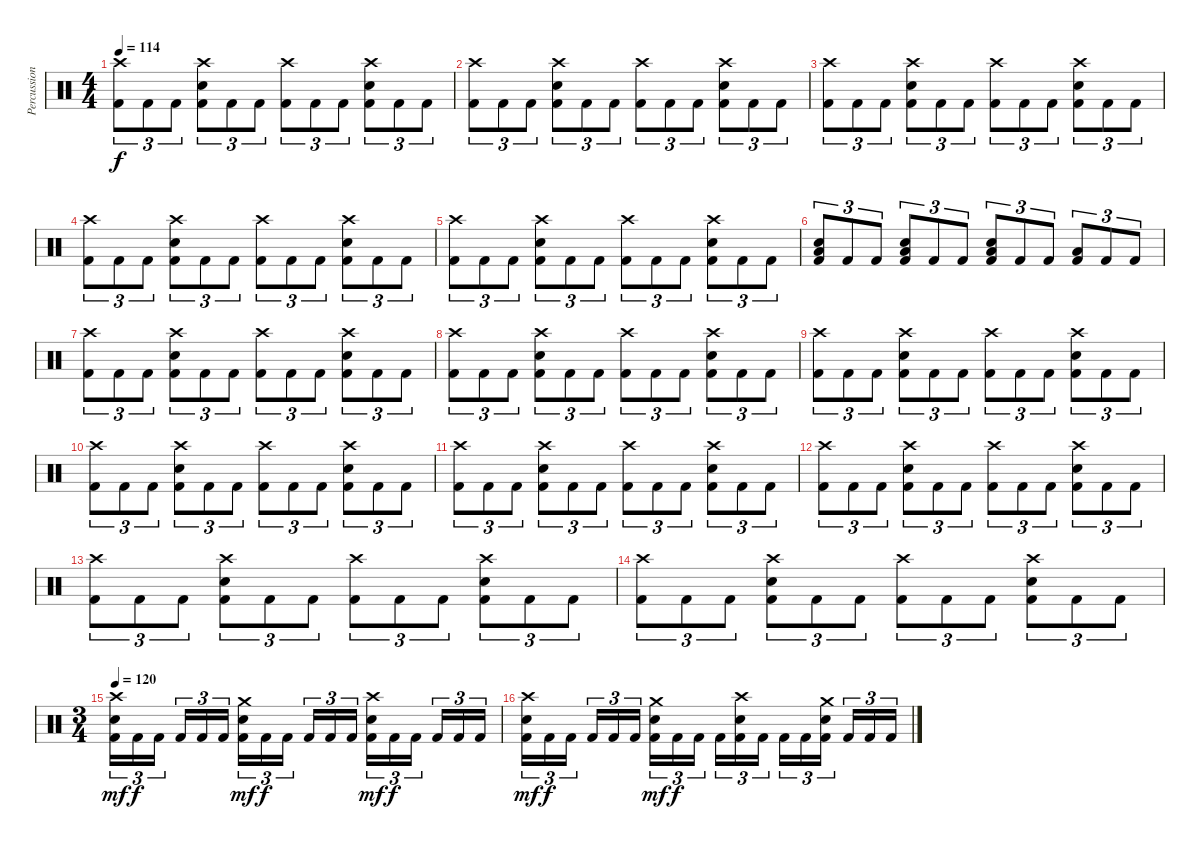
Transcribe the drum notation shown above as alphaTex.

\track ("Percussion" "Percussion") {instrument percussion}
\staff {score}
\articulation defaults
\ts (4 4)
\tempo 114
\clef neutral
\ks c
("Crash high (hit)" "Kick (hit) 2").8{tu (3 2) dy f} "Kick (hit) 2".8{tu (3 2)} "Kick (hit) 2".8{tu (3 2)} ("Crash high (hit)" "Electric Snare (hit)" "Kick (hit) 2").8{tu (3 2)} "Kick (hit) 2".8{tu (3 2)} "Kick (hit) 2".8{tu (3 2)} ("Crash high (hit)" "Kick (hit) 2").8{tu (3 2)} "Kick (hit) 2".8{tu (3 2)} "Kick (hit) 2".8{tu (3 2)} ("Crash high (hit)" "Electric Snare (hit)" "Kick (hit) 2").8{tu (3 2)} "Kick (hit) 2".8{tu (3 2)} "Kick (hit) 2".8{tu (3 2)} |
("Crash high (hit)" "Kick (hit) 2").8{tu (3 2)} "Kick (hit) 2".8{tu (3 2)} "Kick (hit) 2".8{tu (3 2)} ("Crash high (hit)" "Electric Snare (hit)" "Kick (hit) 2").8{tu (3 2)} "Kick (hit) 2".8{tu (3 2)} "Kick (hit) 2".8{tu (3 2)} ("Crash high (hit)" "Kick (hit) 2").8{tu (3 2)} "Kick (hit) 2".8{tu (3 2)} "Kick (hit) 2".8{tu (3 2)} ("Crash high (hit)" "Electric Snare (hit)" "Kick (hit) 2").8{tu (3 2)} "Kick (hit) 2".8{tu (3 2)} "Kick (hit) 2".8{tu (3 2)} |
("Crash high (hit)" "Kick (hit) 2").8{tu (3 2)} "Kick (hit) 2".8{tu (3 2)} "Kick (hit) 2".8{tu (3 2)} ("Crash high (hit)" "Electric Snare (hit)" "Kick (hit) 2").8{tu (3 2)} "Kick (hit) 2".8{tu (3 2)} "Kick (hit) 2".8{tu (3 2)} ("Crash high (hit)" "Kick (hit) 2").8{tu (3 2)} "Kick (hit) 2".8{tu (3 2)} "Kick (hit) 2".8{tu (3 2)} ("Crash high (hit)" "Electric Snare (hit)" "Kick (hit) 2").8{tu (3 2)} "Kick (hit) 2".8{tu (3 2)} "Kick (hit) 2".8{tu (3 2)} |
("Crash high (hit)" "Kick (hit) 2").8{tu (3 2)} "Kick (hit) 2".8{tu (3 2)} "Kick (hit) 2".8{tu (3 2)} ("Crash high (hit)" "Electric Snare (hit)" "Kick (hit) 2").8{tu (3 2)} "Kick (hit) 2".8{tu (3 2)} "Kick (hit) 2".8{tu (3 2)} ("Crash high (hit)" "Kick (hit) 2").8{tu (3 2)} "Kick (hit) 2".8{tu (3 2)} "Kick (hit) 2".8{tu (3 2)} ("Crash high (hit)" "Electric Snare (hit)" "Kick (hit) 2").8{tu (3 2)} "Kick (hit) 2".8{tu (3 2)} "Kick (hit) 2".8{tu (3 2)} |
("Crash high (hit)" "Kick (hit) 2").8{tu (3 2)} "Kick (hit) 2".8{tu (3 2)} "Kick (hit) 2".8{tu (3 2)} ("Crash high (hit)" "Electric Snare (hit)" "Kick (hit) 2").8{tu (3 2)} "Kick (hit) 2".8{tu (3 2)} "Kick (hit) 2".8{tu (3 2)} ("Crash high (hit)" "Kick (hit) 2").8{tu (3 2)} "Kick (hit) 2".8{tu (3 2)} "Kick (hit) 2".8{tu (3 2)} ("Crash high (hit)" "Electric Snare (hit)" "Kick (hit) 2").8{tu (3 2)} "Kick (hit) 2".8{tu (3 2)} "Kick (hit) 2".8{tu (3 2)} |
("Low Floor Tom (hit)" "Electric Snare (hit)" "Kick (hit) 2").8{tu (3 2)} "Kick (hit) 2".8{tu (3 2)} "Kick (hit) 2".8{tu (3 2)} ("Low Floor Tom (hit)" "Electric Snare (hit)" "Kick (hit) 2").8{tu (3 2)} "Kick (hit) 2".8{tu (3 2)} "Kick (hit) 2".8{tu (3 2)} ("Low Floor Tom (hit)" "Electric Snare (hit)" "Kick (hit) 2").8{tu (3 2)} "Kick (hit) 2".8{tu (3 2)} "Kick (hit) 2".8{tu (3 2)} ("Low Floor Tom (hit)" "Kick (hit) 2").8{tu (3 2)} "Kick (hit) 2".8{tu (3 2)} "Kick (hit) 2".8{tu (3 2)} |
("Crash high (hit)" "Kick (hit) 2").8{tu (3 2)} "Kick (hit) 2".8{tu (3 2)} "Kick (hit) 2".8{tu (3 2)} ("Crash high (hit)" "Electric Snare (hit)" "Kick (hit) 2").8{tu (3 2)} "Kick (hit) 2".8{tu (3 2)} "Kick (hit) 2".8{tu (3 2)} ("Crash high (hit)" "Kick (hit) 2").8{tu (3 2)} "Kick (hit) 2".8{tu (3 2)} "Kick (hit) 2".8{tu (3 2)} ("Crash high (hit)" "Electric Snare (hit)" "Kick (hit) 2").8{tu (3 2)} "Kick (hit) 2".8{tu (3 2)} "Kick (hit) 2".8{tu (3 2)} |
("Crash high (hit)" "Kick (hit) 2").8{tu (3 2)} "Kick (hit) 2".8{tu (3 2)} "Kick (hit) 2".8{tu (3 2)} ("Crash high (hit)" "Electric Snare (hit)" "Kick (hit) 2").8{tu (3 2)} "Kick (hit) 2".8{tu (3 2)} "Kick (hit) 2".8{tu (3 2)} ("Crash high (hit)" "Kick (hit) 2").8{tu (3 2)} "Kick (hit) 2".8{tu (3 2)} "Kick (hit) 2".8{tu (3 2)} ("Crash high (hit)" "Electric Snare (hit)" "Kick (hit) 2").8{tu (3 2)} "Kick (hit) 2".8{tu (3 2)} "Kick (hit) 2".8{tu (3 2)} |
("Crash high (hit)" "Kick (hit) 2").8{tu (3 2)} "Kick (hit) 2".8{tu (3 2)} "Kick (hit) 2".8{tu (3 2)} ("Crash high (hit)" "Electric Snare (hit)" "Kick (hit) 2").8{tu (3 2)} "Kick (hit) 2".8{tu (3 2)} "Kick (hit) 2".8{tu (3 2)} ("Crash high (hit)" "Kick (hit) 2").8{tu (3 2)} "Kick (hit) 2".8{tu (3 2)} "Kick (hit) 2".8{tu (3 2)} ("Crash high (hit)" "Electric Snare (hit)" "Kick (hit) 2").8{tu (3 2)} "Kick (hit) 2".8{tu (3 2)} "Kick (hit) 2".8{tu (3 2)} |
("Crash high (hit)" "Kick (hit) 2").8{tu (3 2)} "Kick (hit) 2".8{tu (3 2)} "Kick (hit) 2".8{tu (3 2)} ("Crash high (hit)" "Electric Snare (hit)" "Kick (hit) 2").8{tu (3 2)} "Kick (hit) 2".8{tu (3 2)} "Kick (hit) 2".8{tu (3 2)} ("Crash high (hit)" "Kick (hit) 2").8{tu (3 2)} "Kick (hit) 2".8{tu (3 2)} "Kick (hit) 2".8{tu (3 2)} ("Crash high (hit)" "Electric Snare (hit)" "Kick (hit) 2").8{tu (3 2)} "Kick (hit) 2".8{tu (3 2)} "Kick (hit) 2".8{tu (3 2)} |
("Crash high (hit)" "Kick (hit) 2").8{tu (3 2)} "Kick (hit) 2".8{tu (3 2)} "Kick (hit) 2".8{tu (3 2)} ("Crash high (hit)" "Electric Snare (hit)" "Kick (hit) 2").8{tu (3 2)} "Kick (hit) 2".8{tu (3 2)} "Kick (hit) 2".8{tu (3 2)} ("Crash high (hit)" "Kick (hit) 2").8{tu (3 2)} "Kick (hit) 2".8{tu (3 2)} "Kick (hit) 2".8{tu (3 2)} ("Crash high (hit)" "Electric Snare (hit)" "Kick (hit) 2").8{tu (3 2)} "Kick (hit) 2".8{tu (3 2)} "Kick (hit) 2".8{tu (3 2)} |
("Crash high (hit)" "Kick (hit) 2").8{tu (3 2)} "Kick (hit) 2".8{tu (3 2)} "Kick (hit) 2".8{tu (3 2)} ("Crash high (hit)" "Electric Snare (hit)" "Kick (hit) 2").8{tu (3 2)} "Kick (hit) 2".8{tu (3 2)} "Kick (hit) 2".8{tu (3 2)} ("Crash high (hit)" "Kick (hit) 2").8{tu (3 2)} "Kick (hit) 2".8{tu (3 2)} "Kick (hit) 2".8{tu (3 2)} ("Crash high (hit)" "Electric Snare (hit)" "Kick (hit) 2").8{tu (3 2)} "Kick (hit) 2".8{tu (3 2)} "Kick (hit) 2".8{tu (3 2)} |
("Crash high (hit)" "Kick (hit) 2").8{tu (3 2)} "Kick (hit) 2".8{tu (3 2)} "Kick (hit) 2".8{tu (3 2)} ("Crash high (hit)" "Electric Snare (hit)" "Kick (hit) 2").8{tu (3 2)} "Kick (hit) 2".8{tu (3 2)} "Kick (hit) 2".8{tu (3 2)} ("Crash high (hit)" "Kick (hit) 2").8{tu (3 2)} "Kick (hit) 2".8{tu (3 2)} "Kick (hit) 2".8{tu (3 2)} ("Crash high (hit)" "Electric Snare (hit)" "Kick (hit) 2").8{tu (3 2)} "Kick (hit) 2".8{tu (3 2)} "Kick (hit) 2".8{tu (3 2)} |
("Crash high (hit)" "Kick (hit) 2").8{tu (3 2)} "Kick (hit) 2".8{tu (3 2)} "Kick (hit) 2".8{tu (3 2)} ("Crash high (hit)" "Electric Snare (hit)" "Kick (hit) 2").8{tu (3 2)} "Kick (hit) 2".8{tu (3 2)} "Kick (hit) 2".8{tu (3 2)} ("Crash high (hit)" "Kick (hit) 2").8{tu (3 2)} "Kick (hit) 2".8{tu (3 2)} "Kick (hit) 2".8{tu (3 2)} ("Crash high (hit)" "Electric Snare (hit)" "Kick (hit) 2").8{tu (3 2)} "Kick (hit) 2".8{tu (3 2)} "Kick (hit) 2".8{tu (3 2)} |
\ts (3 4)
\tempo 120
("Crash high (hit)" "Electric Snare (hit)" "Kick (hit) 2").16{tu (3 2) dy mf} "Kick (hit) 2".16{tu (3 2) dy f} "Kick (hit) 2".16{tu (3 2)} "Kick (hit) 2".16{tu (3 2)} "Kick (hit) 2".16{tu (3 2)} "Kick (hit) 2".16{tu (3 2)} ("Crash medium (hit)" "Electric Snare (hit)" "Kick (hit) 2").16{tu (3 2) dy mf} "Kick (hit) 2".16{tu (3 2) dy f} "Kick (hit) 2".16{tu (3 2)} "Kick (hit) 2".16{tu (3 2)} "Kick (hit) 2".16{tu (3 2)} "Kick (hit) 2".16{tu (3 2)} ("Crash high (hit)" "Electric Snare (hit)" "Kick (hit) 2").16{tu (3 2) dy mf} "Kick (hit) 2".16{tu (3 2) dy f} "Kick (hit) 2".16{tu (3 2)} "Kick (hit) 2".16{tu (3 2)} "Kick (hit) 2".16{tu (3 2)} "Kick (hit) 2".16{tu (3 2)} |
("Crash high (hit)" "Electric Snare (hit)" "Kick (hit) 2").16{tu (3 2) dy mf} "Kick (hit) 2".16{tu (3 2) dy f} "Kick (hit) 2".16{tu (3 2)} "Kick (hit) 2".16{tu (3 2)} "Kick (hit) 2".16{tu (3 2)} "Kick (hit) 2".16{tu (3 2)} ("Crash medium (hit)" "Electric Snare (hit)" "Kick (hit) 2").16{tu (3 2) dy mf} "Kick (hit) 2".16{tu (3 2) dy f} "Kick (hit) 2".16{tu (3 2)} "Kick (hit) 2".16{tu (3 2)} ("Crash high (hit)" "Electric Snare (hit)" "Kick (hit) 2").16{tu (3 2)} "Kick (hit) 2".16{tu (3 2)} "Kick (hit) 2".16{tu (3 2)} "Kick (hit) 2".16{tu (3 2)} ("Crash medium (hit)" "Electric Snare (hit)" "Kick (hit) 2").16{tu (3 2)} "Kick (hit) 2".16{tu (3 2)} "Kick (hit) 2".16{tu (3 2)} "Kick (hit) 2".16{tu (3 2)}
